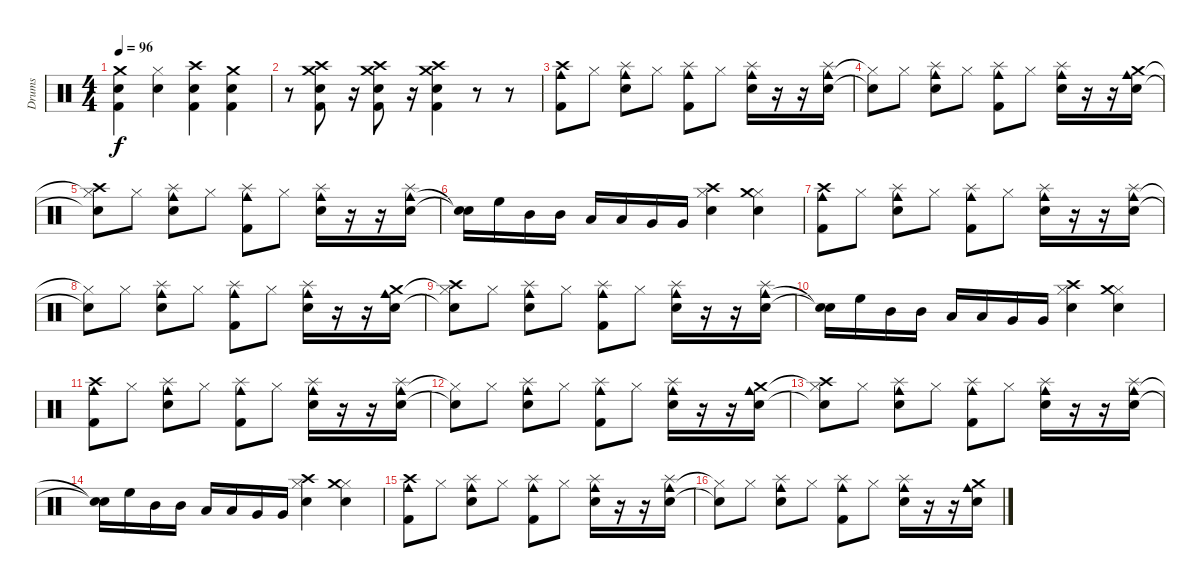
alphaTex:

\track ("Drums" "Drums") {instrument percussion}
\staff {score}
\articulation defaults
\ts (4 4)
\tempo 96
\clef neutral
\ks c
("Snare (hit) 2" "Kick (hit) 2" "Crash medium (hit)").4{dy f} ("Snare (hit) 2" "Hi-Hat (closed)").4 ("Snare (hit) 2" "Kick (hit) 2" "Crash high (hit)").4 ("Snare (hit) 2" "Kick (hit) 2" "Crash medium (hit)").4 |
r.8 ("Snare (hit) 2" "Kick (hit) 2" "Crash high (hit)" "Crash medium (hit)").8 r.16 ("Snare (hit) 2" "Kick (hit) 2" "Crash high (hit)" "Crash medium (hit)").8 r.16 ("Snare (hit) 2" "Kick (hit) 2" "Crash high (hit)" "Crash medium (hit)").4 r.8 r.8 |
("Kick (hit) 2" "Cowbell medium (hit)" "Crash high (hit)").8 "Hi-Hat (closed)".8 ("Snare (hit) 2" "Cowbell medium (hit)" "Splash (hit)").8 "Hi-Hat (closed)".8 ("Kick (hit) 2" "Cowbell medium (hit)" "Splash (hit)").8 "Hi-Hat (closed)".8 ("Snare (hit) 2" "Cowbell medium (hit)" "Splash (hit)").16 r.16 r.16 ("Snare (hit) 2" "Cowbell medium (hit)" "Splash (hit)").16 |
("Snare (hit) 2"{t} "Hi-Hat (closed)"{t}).8 "Hi-Hat (closed)".8 ("Snare (hit) 2" "Cowbell medium (hit)" "Splash (hit)").8 "Hi-Hat (closed)".8 ("Kick (hit) 2" "Cowbell medium (hit)" "Splash (hit)").8 "Hi-Hat (closed)".8 ("Snare (hit) 2" "Cowbell medium (hit)" "Splash (hit)").16 r.16 r.16 ("Snare (hit) 2" "Cowbell medium (hit)" "Crash medium (hit)").16 |
("Snare (hit) 2"{t} "Hi-Hat (closed)"{t} "Crash high (hit)").8 "Hi-Hat (closed)".8 ("Snare (hit) 2" "Cowbell medium (hit)" "Splash (hit)").8 "Hi-Hat (closed)".8 ("Kick (hit) 2" "Cowbell medium (hit)" "Splash (hit)").8 "Hi-Hat (closed)".8 ("Snare (hit) 2" "Cowbell medium (hit)" "Splash (hit)").16 r.16 r.16 ("Snare (hit) 2" "Cowbell medium (hit)" "Splash (hit)").16 |
("Snare (hit)"{t} "Snare (hit)"{t}).16 "High Floor Tom (hit)".16 "Mid Tom (hit)".16 "Mid Tom (hit)".16 "Low Tom (hit)".16 "Low Tom (hit)".16 "Very Low Tom (hit)".16 "Very Low Tom (hit)".16 ("Snare (hit) 2" "Hi-Hat (closed)" "Crash high (hit)").4 ("Snare (hit) 2" "Hi-Hat (closed)" "Crash medium (hit)").4 |
("Kick (hit) 2" "Cowbell medium (hit)" "Crash high (hit)").8 "Hi-Hat (closed)".8 ("Snare (hit) 2" "Cowbell medium (hit)" "Splash (hit)").8 "Hi-Hat (closed)".8 ("Kick (hit) 2" "Cowbell medium (hit)" "Splash (hit)").8 "Hi-Hat (closed)".8 ("Snare (hit) 2" "Cowbell medium (hit)" "Splash (hit)").16 r.16 r.16 ("Snare (hit) 2" "Cowbell medium (hit)" "Splash (hit)").16 |
("Snare (hit) 2"{t} "Hi-Hat (closed)"{t}).8 "Hi-Hat (closed)".8 ("Snare (hit) 2" "Cowbell medium (hit)" "Splash (hit)").8 "Hi-Hat (closed)".8 ("Kick (hit) 2" "Cowbell medium (hit)" "Splash (hit)").8 "Hi-Hat (closed)".8 ("Snare (hit) 2" "Cowbell medium (hit)" "Splash (hit)").16 r.16 r.16 ("Snare (hit) 2" "Cowbell medium (hit)" "Crash medium (hit)").16 |
("Snare (hit) 2"{t} "Hi-Hat (closed)"{t} "Crash high (hit)").8 "Hi-Hat (closed)".8 ("Snare (hit) 2" "Cowbell medium (hit)" "Splash (hit)").8 "Hi-Hat (closed)".8 ("Kick (hit) 2" "Cowbell medium (hit)" "Splash (hit)").8 "Hi-Hat (closed)".8 ("Snare (hit) 2" "Cowbell medium (hit)" "Splash (hit)").16 r.16 r.16 ("Snare (hit) 2" "Cowbell medium (hit)" "Splash (hit)").16 |
("Snare (hit)"{t} "Snare (hit)"{t}).16 "High Floor Tom (hit)".16 "Mid Tom (hit)".16 "Mid Tom (hit)".16 "Low Tom (hit)".16 "Low Tom (hit)".16 "Very Low Tom (hit)".16 "Very Low Tom (hit)".16 ("Snare (hit) 2" "Hi-Hat (closed)" "Crash high (hit)").4 ("Snare (hit) 2" "Hi-Hat (closed)" "Crash medium (hit)").4 |
("Kick (hit) 2" "Cowbell medium (hit)" "Crash high (hit)").8 "Hi-Hat (closed)".8 ("Snare (hit) 2" "Cowbell medium (hit)" "Splash (hit)").8 "Hi-Hat (closed)".8 ("Kick (hit) 2" "Cowbell medium (hit)" "Splash (hit)").8 "Hi-Hat (closed)".8 ("Snare (hit) 2" "Cowbell medium (hit)" "Splash (hit)").16 r.16 r.16 ("Snare (hit) 2" "Cowbell medium (hit)" "Splash (hit)").16 |
("Snare (hit) 2"{t} "Hi-Hat (closed)"{t}).8 "Hi-Hat (closed)".8 ("Snare (hit) 2" "Cowbell medium (hit)" "Splash (hit)").8 "Hi-Hat (closed)".8 ("Kick (hit) 2" "Cowbell medium (hit)" "Splash (hit)").8 "Hi-Hat (closed)".8 ("Snare (hit) 2" "Cowbell medium (hit)" "Splash (hit)").16 r.16 r.16 ("Snare (hit) 2" "Cowbell medium (hit)" "Crash medium (hit)").16 |
("Snare (hit) 2"{t} "Hi-Hat (closed)"{t} "Crash high (hit)").8 "Hi-Hat (closed)".8 ("Snare (hit) 2" "Cowbell medium (hit)" "Splash (hit)").8 "Hi-Hat (closed)".8 ("Kick (hit) 2" "Cowbell medium (hit)" "Splash (hit)").8 "Hi-Hat (closed)".8 ("Snare (hit) 2" "Cowbell medium (hit)" "Splash (hit)").16 r.16 r.16 ("Snare (hit) 2" "Cowbell medium (hit)" "Splash (hit)").16 |
("Snare (hit)"{t} "Snare (hit)"{t}).16 "High Floor Tom (hit)".16 "Mid Tom (hit)".16 "Mid Tom (hit)".16 "Low Tom (hit)".16 "Low Tom (hit)".16 "Very Low Tom (hit)".16 "Very Low Tom (hit)".16 ("Snare (hit) 2" "Hi-Hat (closed)" "Crash high (hit)").4 ("Snare (hit) 2" "Hi-Hat (closed)" "Crash medium (hit)").4 |
("Kick (hit) 2" "Cowbell medium (hit)" "Crash high (hit)").8 "Hi-Hat (closed)".8 ("Snare (hit) 2" "Cowbell medium (hit)" "Splash (hit)").8 "Hi-Hat (closed)".8 ("Kick (hit) 2" "Cowbell medium (hit)" "Splash (hit)").8 "Hi-Hat (closed)".8 ("Snare (hit) 2" "Cowbell medium (hit)" "Splash (hit)").16 r.16 r.16 ("Snare (hit) 2" "Cowbell medium (hit)" "Splash (hit)").16 |
("Snare (hit) 2"{t} "Hi-Hat (closed)"{t}).8 "Hi-Hat (closed)".8 ("Snare (hit) 2" "Cowbell medium (hit)" "Splash (hit)").8 "Hi-Hat (closed)".8 ("Kick (hit) 2" "Cowbell medium (hit)" "Splash (hit)").8 "Hi-Hat (closed)".8 ("Snare (hit) 2" "Cowbell medium (hit)" "Splash (hit)").16 r.16 r.16 ("Snare (hit) 2" "Cowbell medium (hit)" "Crash medium (hit)").16
